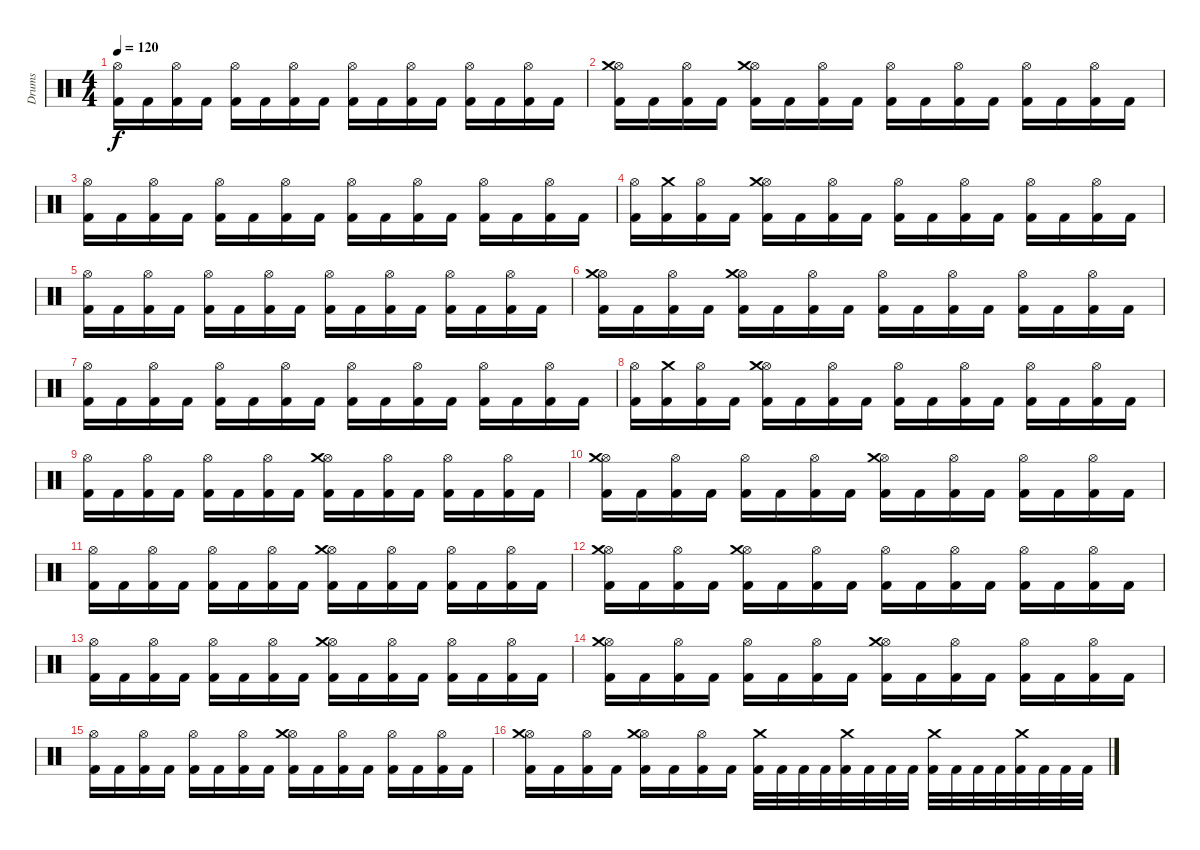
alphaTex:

\track ("Drums" "Drums") {instrument percussion}
\staff {score}
\articulation defaults
\ts (4 4)
\tempo 120
\clef neutral
\ks c
("Kick (hit) 2" "Hi-Hat (open)").16{dy f} "Kick (hit) 2".16 ("Kick (hit) 2" "Hi-Hat (open)").16 "Kick (hit) 2".16 ("Kick (hit) 2" "Hi-Hat (open)").16 "Kick (hit) 2".16 ("Kick (hit) 2" "Hi-Hat (open)").16 "Kick (hit) 2".16 ("Kick (hit) 2" "Hi-Hat (open)").16 "Kick (hit) 2".16 ("Kick (hit) 2" "Hi-Hat (open)").16 "Kick (hit) 2".16 ("Kick (hit) 2" "Hi-Hat (open)").16 "Kick (hit) 2".16 ("Kick (hit) 2" "Hi-Hat (open)").16 "Kick (hit) 2".16 |
("Kick (hit) 2" "Hi-Hat (open)" "Crash medium (hit)").16 "Kick (hit) 2".16 ("Kick (hit) 2" "Hi-Hat (open)").16 "Kick (hit) 2".16 ("Kick (hit) 2" "Hi-Hat (open)" "Crash medium (hit)").16 "Kick (hit) 2".16 ("Kick (hit) 2" "Hi-Hat (open)").16 "Kick (hit) 2".16 ("Kick (hit) 2" "Hi-Hat (open)").16 "Kick (hit) 2".16 ("Kick (hit) 2" "Hi-Hat (open)").16 "Kick (hit) 2".16 ("Kick (hit) 2" "Hi-Hat (open)").16 "Kick (hit) 2".16 ("Kick (hit) 2" "Hi-Hat (open)").16 "Kick (hit) 2".16 |
("Kick (hit) 2" "Hi-Hat (open)").16 "Kick (hit) 2".16 ("Kick (hit) 2" "Hi-Hat (open)").16 "Kick (hit) 2".16 ("Kick (hit) 2" "Hi-Hat (open)").16 "Kick (hit) 2".16 ("Kick (hit) 2" "Hi-Hat (open)").16 "Kick (hit) 2".16 ("Kick (hit) 2" "Hi-Hat (open)").16 "Kick (hit) 2".16 ("Kick (hit) 2" "Hi-Hat (open)").16 "Kick (hit) 2".16 ("Kick (hit) 2" "Hi-Hat (open)").16 "Kick (hit) 2".16 ("Kick (hit) 2" "Hi-Hat (open)").16 "Kick (hit) 2".16 |
("Kick (hit) 2" "Hi-Hat (open)").16 ("Kick (hit) 2" "Crash medium (hit)").16 ("Kick (hit) 2" "Hi-Hat (open)").16 "Kick (hit) 2".16 ("Kick (hit) 2" "Hi-Hat (open)" "Crash medium (hit)").16 "Kick (hit) 2".16 ("Kick (hit) 2" "Hi-Hat (open)").16 "Kick (hit) 2".16 ("Kick (hit) 2" "Hi-Hat (open)").16 "Kick (hit) 2".16 ("Kick (hit) 2" "Hi-Hat (open)").16 "Kick (hit) 2".16 ("Kick (hit) 2" "Hi-Hat (open)").16 "Kick (hit) 2".16 ("Kick (hit) 2" "Hi-Hat (open)").16 "Kick (hit) 2".16 |
("Kick (hit) 2" "Hi-Hat (open)").16 "Kick (hit) 2".16 ("Kick (hit) 2" "Hi-Hat (open)").16 "Kick (hit) 2".16 ("Kick (hit) 2" "Hi-Hat (open)").16 "Kick (hit) 2".16 ("Kick (hit) 2" "Hi-Hat (open)").16 "Kick (hit) 2".16 ("Kick (hit) 2" "Hi-Hat (open)").16 "Kick (hit) 2".16 ("Kick (hit) 2" "Hi-Hat (open)").16 "Kick (hit) 2".16 ("Kick (hit) 2" "Hi-Hat (open)").16 "Kick (hit) 2".16 ("Kick (hit) 2" "Hi-Hat (open)").16 "Kick (hit) 2".16 |
("Kick (hit) 2" "Hi-Hat (open)" "Crash medium (hit)").16 "Kick (hit) 2".16 ("Kick (hit) 2" "Hi-Hat (open)").16 "Kick (hit) 2".16 ("Kick (hit) 2" "Hi-Hat (open)" "Crash medium (hit)").16 "Kick (hit) 2".16 ("Kick (hit) 2" "Hi-Hat (open)").16 "Kick (hit) 2".16 ("Kick (hit) 2" "Hi-Hat (open)").16 "Kick (hit) 2".16 ("Kick (hit) 2" "Hi-Hat (open)").16 "Kick (hit) 2".16 ("Kick (hit) 2" "Hi-Hat (open)").16 "Kick (hit) 2".16 ("Kick (hit) 2" "Hi-Hat (open)").16 "Kick (hit) 2".16 |
("Kick (hit) 2" "Hi-Hat (open)").16 "Kick (hit) 2".16 ("Kick (hit) 2" "Hi-Hat (open)").16 "Kick (hit) 2".16 ("Kick (hit) 2" "Hi-Hat (open)").16 "Kick (hit) 2".16 ("Kick (hit) 2" "Hi-Hat (open)").16 "Kick (hit) 2".16 ("Kick (hit) 2" "Hi-Hat (open)").16 "Kick (hit) 2".16 ("Kick (hit) 2" "Hi-Hat (open)").16 "Kick (hit) 2".16 ("Kick (hit) 2" "Hi-Hat (open)").16 "Kick (hit) 2".16 ("Kick (hit) 2" "Hi-Hat (open)").16 "Kick (hit) 2".16 |
("Kick (hit) 2" "Hi-Hat (open)").16 ("Kick (hit) 2" "Crash medium (hit)").16 ("Kick (hit) 2" "Hi-Hat (open)").16 "Kick (hit) 2".16 ("Kick (hit) 2" "Hi-Hat (open)" "Crash medium (hit)").16 "Kick (hit) 2".16 ("Kick (hit) 2" "Hi-Hat (open)").16 "Kick (hit) 2".16 ("Kick (hit) 2" "Hi-Hat (open)").16 "Kick (hit) 2".16 ("Kick (hit) 2" "Hi-Hat (open)").16 "Kick (hit) 2".16 ("Kick (hit) 2" "Hi-Hat (open)").16 "Kick (hit) 2".16 ("Kick (hit) 2" "Hi-Hat (open)").16 "Kick (hit) 2".16 |
("Kick (hit) 2" "Hi-Hat (open)").16 "Kick (hit) 2".16 ("Kick (hit) 2" "Hi-Hat (open)").16 "Kick (hit) 2".16 ("Kick (hit) 2" "Hi-Hat (open)").16 "Kick (hit) 2".16 ("Kick (hit) 2" "Hi-Hat (open)").16 "Kick (hit) 2".16 ("Kick (hit) 2" "Hi-Hat (open)" "Crash medium (hit)").16 "Kick (hit) 2".16 ("Kick (hit) 2" "Hi-Hat (open)").16 "Kick (hit) 2".16 ("Kick (hit) 2" "Hi-Hat (open)").16 "Kick (hit) 2".16 ("Kick (hit) 2" "Hi-Hat (open)").16 "Kick (hit) 2".16 |
("Kick (hit) 2" "Hi-Hat (open)" "Crash medium (hit)").16 "Kick (hit) 2".16 ("Kick (hit) 2" "Hi-Hat (open)").16 "Kick (hit) 2".16 ("Kick (hit) 2" "Hi-Hat (open)").16 "Kick (hit) 2".16 ("Kick (hit) 2" "Hi-Hat (open)").16 "Kick (hit) 2".16 ("Kick (hit) 2" "Hi-Hat (open)" "Crash medium (hit)").16 "Kick (hit) 2".16 ("Kick (hit) 2" "Hi-Hat (open)").16 "Kick (hit) 2".16 ("Kick (hit) 2" "Hi-Hat (open)").16 "Kick (hit) 2".16 ("Kick (hit) 2" "Hi-Hat (open)").16 "Kick (hit) 2".16 |
("Kick (hit) 2" "Hi-Hat (open)").16 "Kick (hit) 2".16 ("Kick (hit) 2" "Hi-Hat (open)").16 "Kick (hit) 2".16 ("Kick (hit) 2" "Hi-Hat (open)").16 "Kick (hit) 2".16 ("Kick (hit) 2" "Hi-Hat (open)").16 "Kick (hit) 2".16 ("Kick (hit) 2" "Hi-Hat (open)" "Crash medium (hit)").16 "Kick (hit) 2".16 ("Kick (hit) 2" "Hi-Hat (open)").16 "Kick (hit) 2".16 ("Kick (hit) 2" "Hi-Hat (open)").16 "Kick (hit) 2".16 ("Kick (hit) 2" "Hi-Hat (open)").16 "Kick (hit) 2".16 |
("Kick (hit) 2" "Hi-Hat (open)" "Crash medium (hit)").16 "Kick (hit) 2".16 ("Kick (hit) 2" "Hi-Hat (open)").16 "Kick (hit) 2".16 ("Kick (hit) 2" "Hi-Hat (open)" "Crash medium (hit)").16 "Kick (hit) 2".16 ("Kick (hit) 2" "Hi-Hat (open)").16 "Kick (hit) 2".16 ("Kick (hit) 2" "Hi-Hat (open)").16 "Kick (hit) 2".16 ("Kick (hit) 2" "Hi-Hat (open)").16 "Kick (hit) 2".16 ("Kick (hit) 2" "Hi-Hat (open)").16 "Kick (hit) 2".16 ("Kick (hit) 2" "Hi-Hat (open)").16 "Kick (hit) 2".16 |
("Kick (hit) 2" "Hi-Hat (open)").16 "Kick (hit) 2".16 ("Kick (hit) 2" "Hi-Hat (open)").16 "Kick (hit) 2".16 ("Kick (hit) 2" "Hi-Hat (open)").16 "Kick (hit) 2".16 ("Kick (hit) 2" "Hi-Hat (open)").16 "Kick (hit) 2".16 ("Kick (hit) 2" "Hi-Hat (open)" "Crash medium (hit)").16 "Kick (hit) 2".16 ("Kick (hit) 2" "Hi-Hat (open)").16 "Kick (hit) 2".16 ("Kick (hit) 2" "Hi-Hat (open)").16 "Kick (hit) 2".16 ("Kick (hit) 2" "Hi-Hat (open)").16 "Kick (hit) 2".16 |
("Kick (hit) 2" "Hi-Hat (open)" "Crash medium (hit)").16 "Kick (hit) 2".16 ("Kick (hit) 2" "Hi-Hat (open)").16 "Kick (hit) 2".16 ("Kick (hit) 2" "Hi-Hat (open)").16 "Kick (hit) 2".16 ("Kick (hit) 2" "Hi-Hat (open)").16 "Kick (hit) 2".16 ("Kick (hit) 2" "Hi-Hat (open)" "Crash medium (hit)").16 "Kick (hit) 2".16 ("Kick (hit) 2" "Hi-Hat (open)").16 "Kick (hit) 2".16 ("Kick (hit) 2" "Hi-Hat (open)").16 "Kick (hit) 2".16 ("Kick (hit) 2" "Hi-Hat (open)").16 "Kick (hit) 2".16 |
("Kick (hit) 2" "Hi-Hat (open)").16 "Kick (hit) 2".16 ("Kick (hit) 2" "Hi-Hat (open)").16 "Kick (hit) 2".16 ("Kick (hit) 2" "Hi-Hat (open)").16 "Kick (hit) 2".16 ("Kick (hit) 2" "Hi-Hat (open)").16 "Kick (hit) 2".16 ("Kick (hit) 2" "Hi-Hat (open)" "Crash medium (hit)").16 "Kick (hit) 2".16 ("Kick (hit) 2" "Hi-Hat (open)").16 "Kick (hit) 2".16 ("Kick (hit) 2" "Hi-Hat (open)").16 "Kick (hit) 2".16 ("Kick (hit) 2" "Hi-Hat (open)").16 "Kick (hit) 2".16 |
("Kick (hit) 2" "Hi-Hat (open)" "Crash medium (hit)").16 "Kick (hit) 2".16 ("Kick (hit) 2" "Hi-Hat (open)").16 "Kick (hit) 2".16 ("Kick (hit) 2" "Hi-Hat (open)" "Crash medium (hit)").16 "Kick (hit) 2".16 ("Kick (hit) 2" "Hi-Hat (open)").16 "Kick (hit) 2".16 ("Kick (hit) 2" "Crash medium (hit)").32 "Kick (hit) 2".32 "Kick (hit) 2".32 "Kick (hit) 2".32 ("Kick (hit) 2" "Crash medium (hit)").32 "Kick (hit) 2".32 "Kick (hit) 2".32 "Kick (hit) 2".32 ("Kick (hit) 2" "Crash medium (hit)").32 "Kick (hit) 2".32 "Kick (hit) 2".32 "Kick (hit) 2".32 ("Kick (hit) 2" "Crash medium (hit)").32 "Kick (hit) 2".32 "Kick (hit) 2".32 "Kick (hit) 2".32
